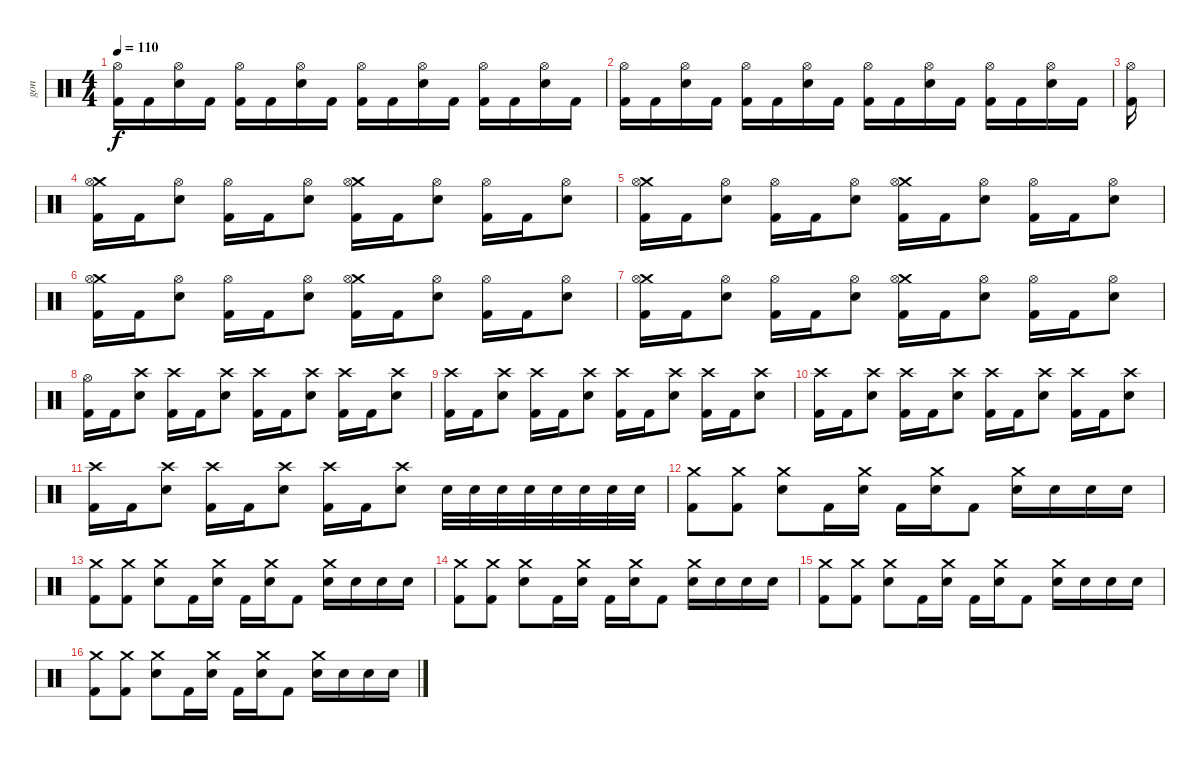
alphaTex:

\track ("gon" "gon") {instrument percussion}
\staff {score}
\articulation defaults
\ts (4 4)
\tempo 110
\clef neutral
\ks c
("Hi-Hat (open)" "Kick (hit) 2").16{dy f} "Kick (hit) 2".16 ("Hi-Hat (open)" "Snare (hit) 2").16 "Kick (hit) 2".16 ("Hi-Hat (open)" "Kick (hit) 2").16 "Kick (hit) 2".16 ("Hi-Hat (open)" "Snare (hit) 2").16 "Kick (hit) 2".16 ("Hi-Hat (open)" "Kick (hit) 2").16 "Kick (hit) 2".16 ("Hi-Hat (open)" "Snare (hit) 2").16 "Kick (hit) 2".16 ("Hi-Hat (open)" "Kick (hit) 2").16 "Kick (hit) 2".16 ("Hi-Hat (open)" "Snare (hit) 2").16 "Kick (hit) 2".16 |
("Hi-Hat (open)" "Kick (hit) 2").16 "Kick (hit) 2".16 ("Hi-Hat (open)" "Snare (hit) 2").16 "Kick (hit) 2".16 ("Hi-Hat (open)" "Kick (hit) 2").16 "Kick (hit) 2".16 ("Hi-Hat (open)" "Snare (hit) 2").16 "Kick (hit) 2".16 ("Hi-Hat (open)" "Kick (hit) 2").16 "Kick (hit) 2".16 ("Hi-Hat (open)" "Snare (hit) 2").16 "Kick (hit) 2".16 ("Hi-Hat (open)" "Kick (hit) 2").16 "Kick (hit) 2".16 ("Hi-Hat (open)" "Snare (hit) 2").16 "Kick (hit) 2".16 |
("Hi-Hat (open)" "Kick (hit) 2").16 |
("Crash medium (hit)" "Hi-Hat (open)" "Kick (hit) 2").16 "Kick (hit) 2".16 ("Hi-Hat (open)" "Electric Snare (hit)").8 ("Hi-Hat (open)" "Kick (hit) 2").16 "Kick (hit) 2".16 ("Hi-Hat (open)" "Electric Snare (hit)").8 ("Crash medium (hit)" "Hi-Hat (open)" "Kick (hit) 2").16 "Kick (hit) 2".16 ("Hi-Hat (open)" "Electric Snare (hit)").8 ("Hi-Hat (open)" "Kick (hit) 2").16 "Kick (hit) 2".16 ("Hi-Hat (open)" "Electric Snare (hit)").8 |
("Crash medium (hit)" "Hi-Hat (open)" "Kick (hit) 2").16 "Kick (hit) 2".16 ("Hi-Hat (open)" "Electric Snare (hit)").8 ("Hi-Hat (open)" "Kick (hit) 2").16 "Kick (hit) 2".16 ("Hi-Hat (open)" "Electric Snare (hit)").8 ("Crash medium (hit)" "Hi-Hat (open)" "Kick (hit) 2").16 "Kick (hit) 2".16 ("Hi-Hat (open)" "Electric Snare (hit)").8 ("Hi-Hat (open)" "Kick (hit) 2").16 "Kick (hit) 2".16 ("Hi-Hat (open)" "Electric Snare (hit)").8 |
("Crash medium (hit)" "Hi-Hat (open)" "Kick (hit) 2").16 "Kick (hit) 2".16 ("Hi-Hat (open)" "Electric Snare (hit)").8 ("Hi-Hat (open)" "Kick (hit) 2").16 "Kick (hit) 2".16 ("Hi-Hat (open)" "Electric Snare (hit)").8 ("Crash medium (hit)" "Hi-Hat (open)" "Kick (hit) 2").16 "Kick (hit) 2".16 ("Hi-Hat (open)" "Electric Snare (hit)").8 ("Hi-Hat (open)" "Kick (hit) 2").16 "Kick (hit) 2".16 ("Hi-Hat (open)" "Electric Snare (hit)").8 |
("Crash medium (hit)" "Hi-Hat (open)" "Kick (hit) 2").16 "Kick (hit) 2".16 ("Hi-Hat (open)" "Electric Snare (hit)").8 ("Hi-Hat (open)" "Kick (hit) 2").16 "Kick (hit) 2".16 ("Hi-Hat (open)" "Electric Snare (hit)").8 ("Crash medium (hit)" "Hi-Hat (open)" "Kick (hit) 2").16 "Kick (hit) 2".16 ("Hi-Hat (open)" "Electric Snare (hit)").8 ("Hi-Hat (open)" "Kick (hit) 2").16 "Kick (hit) 2".16 ("Hi-Hat (open)" "Electric Snare (hit)").8 |
("Hi-Hat (open)" "Kick (hit) 2").16 "Kick (hit) 2".16 ("Crash high (hit)" "Electric Snare (hit)").8 ("Crash high (hit)" "Kick (hit) 2").16 "Kick (hit) 2".16 ("Crash high (hit)" "Electric Snare (hit)").8 ("Crash high (hit)" "Kick (hit) 2").16 "Kick (hit) 2".16 ("Crash high (hit)" "Electric Snare (hit)").8 ("Crash high (hit)" "Kick (hit) 2").16 "Kick (hit) 2".16 ("Crash high (hit)" "Electric Snare (hit)").8 |
("Crash high (hit)" "Kick (hit) 2").16 "Kick (hit) 2".16 ("Crash high (hit)" "Electric Snare (hit)").8 ("Crash high (hit)" "Kick (hit) 2").16 "Kick (hit) 2".16 ("Crash high (hit)" "Electric Snare (hit)").8 ("Crash high (hit)" "Kick (hit) 2").16 "Kick (hit) 2".16 ("Crash high (hit)" "Electric Snare (hit)").8 ("Crash high (hit)" "Kick (hit) 2").16 "Kick (hit) 2".16 ("Crash high (hit)" "Electric Snare (hit)").8 |
("Crash high (hit)" "Kick (hit) 2").16 "Kick (hit) 2".16 ("Crash high (hit)" "Electric Snare (hit)").8 ("Crash high (hit)" "Kick (hit) 2").16 "Kick (hit) 2".16 ("Crash high (hit)" "Electric Snare (hit)").8 ("Crash high (hit)" "Kick (hit) 2").16 "Kick (hit) 2".16 ("Crash high (hit)" "Electric Snare (hit)").8 ("Crash high (hit)" "Kick (hit) 2").16 "Kick (hit) 2".16 ("Crash high (hit)" "Electric Snare (hit)").8 |
("Crash high (hit)" "Kick (hit) 2").16 "Kick (hit) 2".16 ("Crash high (hit)" "Electric Snare (hit)").8 ("Crash high (hit)" "Kick (hit) 2").16 "Kick (hit) 2".16 ("Crash high (hit)" "Electric Snare (hit)").8 ("Crash high (hit)" "Kick (hit) 2").16 "Kick (hit) 2".16 ("Crash high (hit)" "Electric Snare (hit)").8 "Electric Snare (hit)".32 "Electric Snare (hit)".32 "Electric Snare (hit)".32 "Electric Snare (hit)".32 "Electric Snare (hit)".32 "Electric Snare (hit)".32 "Electric Snare (hit)".32 "Electric Snare (hit)".32 |
("Crash medium (hit)" "Kick (hit) 2").8 ("Crash medium (hit)" "Kick (hit) 2").8 ("Crash medium (hit)" "Snare (hit) 2").8 "Kick (hit) 2".16 ("Crash medium (hit)" "Snare (hit) 2").16 "Kick (hit) 2".16 ("Crash medium (hit)" "Snare (hit) 2").16 "Kick (hit) 2".8 ("Crash medium (hit)" "Snare (hit) 2").16 "Snare (hit) 2".16 "Snare (hit) 2".16 "Snare (hit) 2".16 |
("Crash medium (hit)" "Kick (hit) 2").8 ("Crash medium (hit)" "Kick (hit) 2").8 ("Crash medium (hit)" "Snare (hit) 2").8 "Kick (hit) 2".16 ("Crash medium (hit)" "Snare (hit) 2").16 "Kick (hit) 2".16 ("Crash medium (hit)" "Snare (hit) 2").16 "Kick (hit) 2".8 ("Crash medium (hit)" "Snare (hit) 2").16 "Snare (hit) 2".16 "Snare (hit) 2".16 "Snare (hit) 2".16 |
("Crash medium (hit)" "Kick (hit) 2").8 ("Crash medium (hit)" "Kick (hit) 2").8 ("Crash medium (hit)" "Snare (hit) 2").8 "Kick (hit) 2".16 ("Crash medium (hit)" "Snare (hit) 2").16 "Kick (hit) 2".16 ("Crash medium (hit)" "Snare (hit) 2").16 "Kick (hit) 2".8 ("Crash medium (hit)" "Snare (hit) 2").16 "Snare (hit) 2".16 "Snare (hit) 2".16 "Snare (hit) 2".16 |
("Crash medium (hit)" "Kick (hit) 2").8 ("Crash medium (hit)" "Kick (hit) 2").8 ("Crash medium (hit)" "Snare (hit) 2").8 "Kick (hit) 2".16 ("Crash medium (hit)" "Snare (hit) 2").16 "Kick (hit) 2".16 ("Crash medium (hit)" "Snare (hit) 2").16 "Kick (hit) 2".8 ("Crash medium (hit)" "Snare (hit) 2").16 "Snare (hit) 2".16 "Snare (hit) 2".16 "Snare (hit) 2".16 |
("Crash medium (hit)" "Kick (hit) 2").8 ("Crash medium (hit)" "Kick (hit) 2").8 ("Crash medium (hit)" "Snare (hit) 2").8 "Kick (hit) 2".16 ("Crash medium (hit)" "Snare (hit) 2").16 "Kick (hit) 2".16 ("Crash medium (hit)" "Snare (hit) 2").16 "Kick (hit) 2".8 ("Crash medium (hit)" "Snare (hit) 2").16 "Snare (hit) 2".16 "Snare (hit) 2".16 "Snare (hit) 2".16
